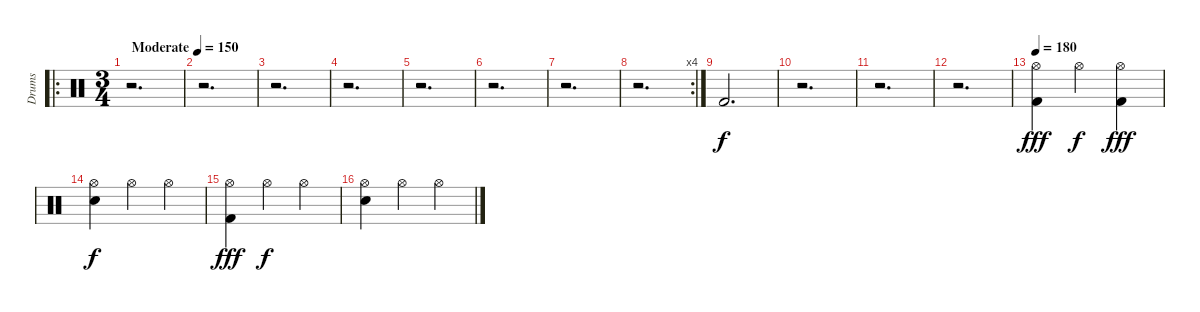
\track ("Drums" "Drums") {instrument percussion}
\staff {score}
\articulation defaults
\ro
\ts (3 4)
\tempo (150 "Moderate")
\clef neutral
\ks c
r.2{d dy f} |
r.2{d} |
r.2{d} |
r.2{d} |
r.2{d} |
r.2{d} |
r.2{d} |
\rc 4
r.2{d} |
"Kick (hit) 2".2{d} |
r.2{d} |
r.2{d} |
r.2{d} |
\tempo 200
\tempo 180
("Hi-Hat (open)" "Kick (hit) 2").4{dy fff} "Hi-Hat (open)".4{dy f} ("Hi-Hat (open)" "Kick (hit) 2").4{dy fff} |
("Hi-Hat (open)" "Electric Snare (hit)").4{dy f} "Hi-Hat (open)".4 "Hi-Hat (open)".4 |
("Hi-Hat (open)" "Kick (hit) 2").4{dy fff} "Hi-Hat (open)".4{dy f} "Hi-Hat (open)".4 |
("Hi-Hat (open)" "Electric Snare (hit)").4 "Hi-Hat (open)".4 "Hi-Hat (open)".4
